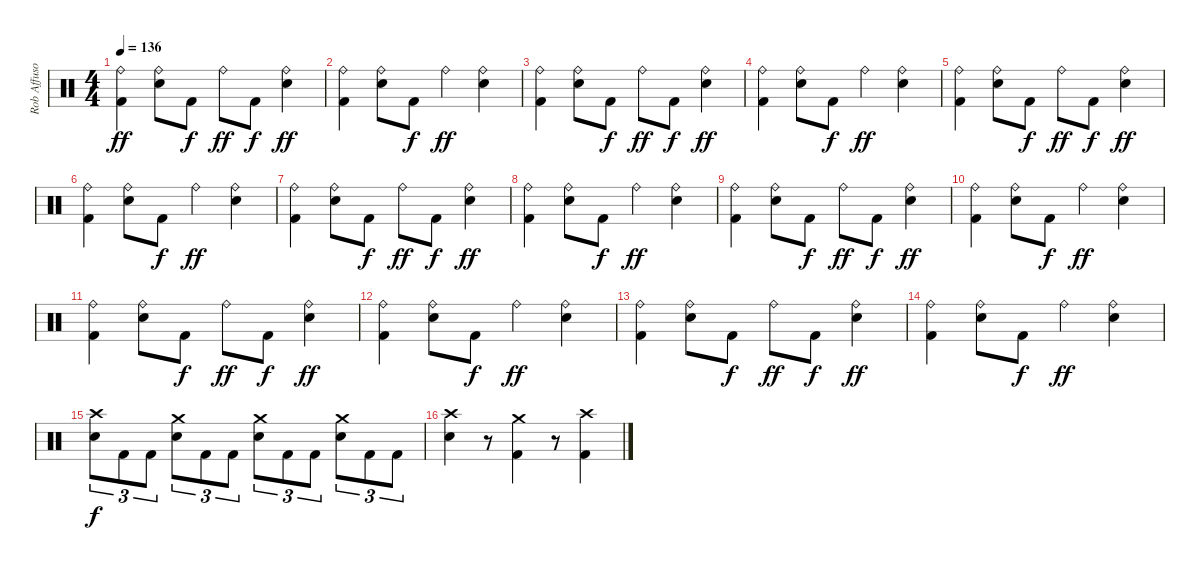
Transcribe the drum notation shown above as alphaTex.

\track ("Rob Affuso" "Rob Affuso") {instrument percussion}
\staff {score}
\articulation defaults
\ts (4 4)
\tempo 136
\clef neutral
\ks c
("Ride (bell)" "Kick (hit) 2").4{dy ff} ("Ride (bell)" "Snare (hit) 2").8 "Kick (hit) 2".8{dy f} "Ride (bell)".8{dy ff} "Kick (hit) 2".8{dy f} ("Ride (bell)" "Snare (hit) 2").4{dy ff} |
("Ride (bell)" "Kick (hit) 2").4 ("Ride (bell)" "Snare (hit) 2").8 "Kick (hit) 2".8{dy f} "Ride (bell)".4{dy ff} ("Ride (bell)" "Snare (hit) 2").4 |
("Ride (bell)" "Kick (hit) 2").4 ("Ride (bell)" "Snare (hit) 2").8 "Kick (hit) 2".8{dy f} "Ride (bell)".8{dy ff} "Kick (hit) 2".8{dy f} ("Ride (bell)" "Snare (hit) 2").4{dy ff} |
("Ride (bell)" "Kick (hit) 2").4 ("Ride (bell)" "Snare (hit) 2").8 "Kick (hit) 2".8{dy f} "Ride (bell)".4{dy ff} ("Ride (bell)" "Snare (hit) 2").4 |
("Ride (bell)" "Kick (hit) 2").4 ("Ride (bell)" "Snare (hit) 2").8 "Kick (hit) 2".8{dy f} "Ride (bell)".8{dy ff} "Kick (hit) 2".8{dy f} ("Ride (bell)" "Snare (hit) 2").4{dy ff} |
("Ride (bell)" "Kick (hit) 2").4 ("Ride (bell)" "Snare (hit) 2").8 "Kick (hit) 2".8{dy f} "Ride (bell)".4{dy ff} ("Ride (bell)" "Snare (hit) 2").4 |
("Ride (bell)" "Kick (hit) 2").4 ("Ride (bell)" "Snare (hit) 2").8 "Kick (hit) 2".8{dy f} "Ride (bell)".8{dy ff} "Kick (hit) 2".8{dy f} ("Ride (bell)" "Snare (hit) 2").4{dy ff} |
("Ride (bell)" "Kick (hit) 2").4 ("Ride (bell)" "Snare (hit) 2").8 "Kick (hit) 2".8{dy f} "Ride (bell)".4{dy ff} ("Ride (bell)" "Snare (hit) 2").4 |
("Ride (bell)" "Kick (hit) 2").4 ("Ride (bell)" "Snare (hit) 2").8 "Kick (hit) 2".8{dy f} "Ride (bell)".8{dy ff} "Kick (hit) 2".8{dy f} ("Ride (bell)" "Snare (hit) 2").4{dy ff} |
("Ride (bell)" "Kick (hit) 2").4 ("Ride (bell)" "Snare (hit) 2").8 "Kick (hit) 2".8{dy f} "Ride (bell)".4{dy ff} ("Ride (bell)" "Snare (hit) 2").4 |
("Ride (bell)" "Kick (hit) 2").4 ("Ride (bell)" "Snare (hit) 2").8 "Kick (hit) 2".8{dy f} "Ride (bell)".8{dy ff} "Kick (hit) 2".8{dy f} ("Ride (bell)" "Snare (hit) 2").4{dy ff} |
("Ride (bell)" "Kick (hit) 2").4 ("Ride (bell)" "Snare (hit) 2").8 "Kick (hit) 2".8{dy f} "Ride (bell)".4{dy ff} ("Ride (bell)" "Snare (hit) 2").4 |
("Ride (bell)" "Kick (hit) 2").4 ("Ride (bell)" "Snare (hit) 2").8 "Kick (hit) 2".8{dy f} "Ride (bell)".8{dy ff} "Kick (hit) 2".8{dy f} ("Ride (bell)" "Snare (hit) 2").4{dy ff} |
("Ride (bell)" "Kick (hit) 2").4 ("Ride (bell)" "Snare (hit) 2").8 "Kick (hit) 2".8{dy f} "Ride (bell)".4{dy ff} ("Ride (bell)" "Snare (hit) 2").4 |
("Crash high (hit)" "Snare (hit) 2").8{tu (3 2) dy f} "Kick (hit) 2".8{tu (3 2)} "Kick (hit) 2".8{tu (3 2)} ("Crash medium (hit)" "Snare (hit) 2").8{tu (3 2)} "Kick (hit) 2".8{tu (3 2)} "Kick (hit) 2".8{tu (3 2)} ("Crash medium (hit)" "Snare (hit) 2").8{tu (3 2)} "Kick (hit) 2".8{tu (3 2)} "Kick (hit) 2".8{tu (3 2)} ("Crash medium (hit)" "Snare (hit) 2").8{tu (3 2)} "Kick (hit) 2".8{tu (3 2)} "Kick (hit) 2".8{tu (3 2)} |
("Crash high (hit)" "Snare (hit) 2").4 r.8 ("Crash medium (hit)" "Kick (hit) 2").4 r.8 ("Crash high (hit)" "Kick (hit) 2").4
